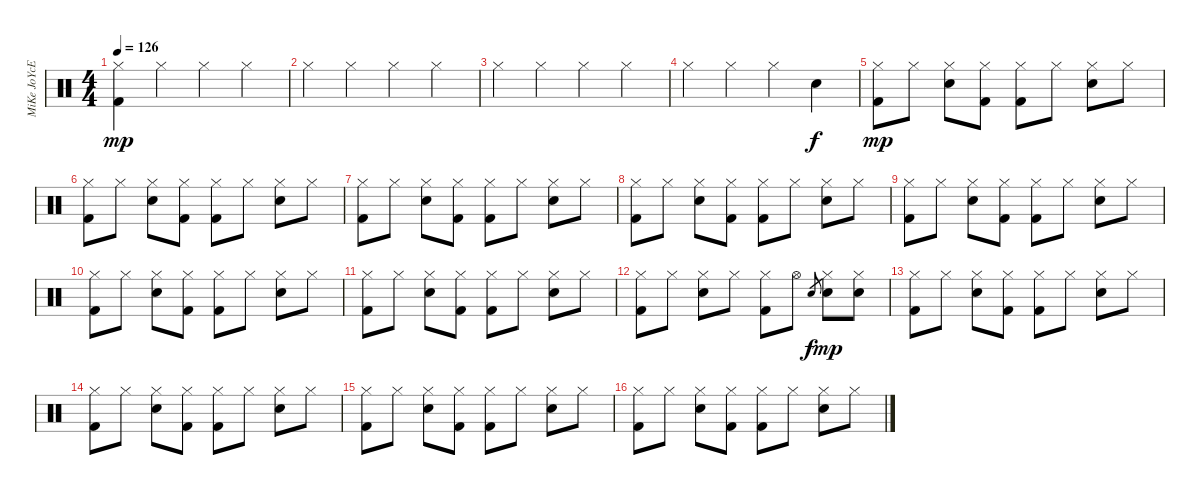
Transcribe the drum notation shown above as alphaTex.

\track ("MiKe JoYcE" "MiKe JoYcE") {instrument percussion}
\staff {score}
\articulation defaults
\ts (4 4)
\tempo 126
\clef neutral
\ks c
("Hi-Hat (closed)" "Kick (hit) 2").4{dy mp} "Hi-Hat (closed)".4 "Hi-Hat (closed)".4 "Hi-Hat (closed)".4 |
"Hi-Hat (closed)".4 "Hi-Hat (closed)".4 "Hi-Hat (closed)".4 "Hi-Hat (closed)".4 |
"Hi-Hat (closed)".4 "Hi-Hat (closed)".4 "Hi-Hat (closed)".4 "Hi-Hat (closed)".4 |
"Hi-Hat (closed)".4 "Hi-Hat (closed)".4 "Hi-Hat (closed)".4 "Electric Snare (hit)".4{dy f} |
("Hi-Hat (closed)" "Kick (hit) 2").8{dy mp} "Hi-Hat (closed)".8 ("Hi-Hat (closed)" "Electric Snare (hit)").8 ("Hi-Hat (closed)" "Kick (hit) 2").8 ("Hi-Hat (closed)" "Kick (hit) 2").8 "Hi-Hat (closed)".8 ("Hi-Hat (closed)" "Electric Snare (hit)").8 "Hi-Hat (closed)".8 |
("Hi-Hat (closed)" "Kick (hit) 2").8 "Hi-Hat (closed)".8 ("Hi-Hat (closed)" "Electric Snare (hit)").8 ("Hi-Hat (closed)" "Kick (hit) 2").8 ("Hi-Hat (closed)" "Kick (hit) 2").8 "Hi-Hat (closed)".8 ("Hi-Hat (closed)" "Electric Snare (hit)").8 "Hi-Hat (closed)".8 |
("Hi-Hat (closed)" "Kick (hit) 2").8 "Hi-Hat (closed)".8 ("Hi-Hat (closed)" "Electric Snare (hit)").8 ("Hi-Hat (closed)" "Kick (hit) 2").8 ("Hi-Hat (closed)" "Kick (hit) 2").8 "Hi-Hat (closed)".8 ("Hi-Hat (closed)" "Electric Snare (hit)").8 "Hi-Hat (closed)".8 |
("Hi-Hat (closed)" "Kick (hit) 2").8 "Hi-Hat (closed)".8 ("Hi-Hat (closed)" "Electric Snare (hit)").8 ("Hi-Hat (closed)" "Kick (hit) 2").8 ("Hi-Hat (closed)" "Kick (hit) 2").8 "Hi-Hat (closed)".8 ("Hi-Hat (closed)" "Electric Snare (hit)").8 "Hi-Hat (closed)".8 |
("Hi-Hat (closed)" "Kick (hit) 2").8 "Hi-Hat (closed)".8 ("Hi-Hat (closed)" "Electric Snare (hit)").8 ("Hi-Hat (closed)" "Kick (hit) 2").8 ("Hi-Hat (closed)" "Kick (hit) 2").8 "Hi-Hat (closed)".8 ("Hi-Hat (closed)" "Electric Snare (hit)").8 "Hi-Hat (closed)".8 |
("Hi-Hat (closed)" "Kick (hit) 2").8 "Hi-Hat (closed)".8 ("Hi-Hat (closed)" "Electric Snare (hit)").8 ("Hi-Hat (closed)" "Kick (hit) 2").8 ("Hi-Hat (closed)" "Kick (hit) 2").8 "Hi-Hat (closed)".8 ("Hi-Hat (closed)" "Electric Snare (hit)").8 "Hi-Hat (closed)".8 |
("Hi-Hat (closed)" "Kick (hit) 2").8 "Hi-Hat (closed)".8 ("Hi-Hat (closed)" "Electric Snare (hit)").8 ("Hi-Hat (closed)" "Kick (hit) 2").8 ("Hi-Hat (closed)" "Kick (hit) 2").8 "Hi-Hat (closed)".8 ("Hi-Hat (closed)" "Electric Snare (hit)").8 "Hi-Hat (closed)".8 |
("Hi-Hat (closed)" "Kick (hit) 2").8 "Hi-Hat (closed)".8 ("Hi-Hat (closed)" "Electric Snare (hit)").8 "Hi-Hat (closed)".8 ("Hi-Hat (closed)" "Kick (hit) 2").8 "Hi-Hat (open)".8 "Electric Snare (hit)".8{gr dy f} ("Hi-Hat (closed)" "Electric Snare (hit)").8{dy mp} ("Hi-Hat (closed)" "Electric Snare (hit)").8 |
("Hi-Hat (closed)" "Kick (hit) 2").8 "Hi-Hat (closed)".8 ("Hi-Hat (closed)" "Electric Snare (hit)").8 ("Hi-Hat (closed)" "Kick (hit) 2").8 ("Hi-Hat (closed)" "Kick (hit) 2").8 "Hi-Hat (closed)".8 ("Hi-Hat (closed)" "Electric Snare (hit)").8 "Hi-Hat (closed)".8 |
("Hi-Hat (closed)" "Kick (hit) 2").8 "Hi-Hat (closed)".8 ("Hi-Hat (closed)" "Electric Snare (hit)").8 ("Hi-Hat (closed)" "Kick (hit) 2").8 ("Hi-Hat (closed)" "Kick (hit) 2").8 "Hi-Hat (closed)".8 ("Hi-Hat (closed)" "Electric Snare (hit)").8 "Hi-Hat (closed)".8 |
("Hi-Hat (closed)" "Kick (hit) 2").8 "Hi-Hat (closed)".8 ("Hi-Hat (closed)" "Electric Snare (hit)").8 ("Hi-Hat (closed)" "Kick (hit) 2").8 ("Hi-Hat (closed)" "Kick (hit) 2").8 "Hi-Hat (closed)".8 ("Hi-Hat (closed)" "Electric Snare (hit)").8 "Hi-Hat (closed)".8 |
("Hi-Hat (closed)" "Kick (hit) 2").8 "Hi-Hat (closed)".8 ("Hi-Hat (closed)" "Electric Snare (hit)").8 ("Hi-Hat (closed)" "Kick (hit) 2").8 ("Hi-Hat (closed)" "Kick (hit) 2").8 "Hi-Hat (closed)".8 ("Hi-Hat (closed)" "Electric Snare (hit)").8 "Hi-Hat (closed)".8
